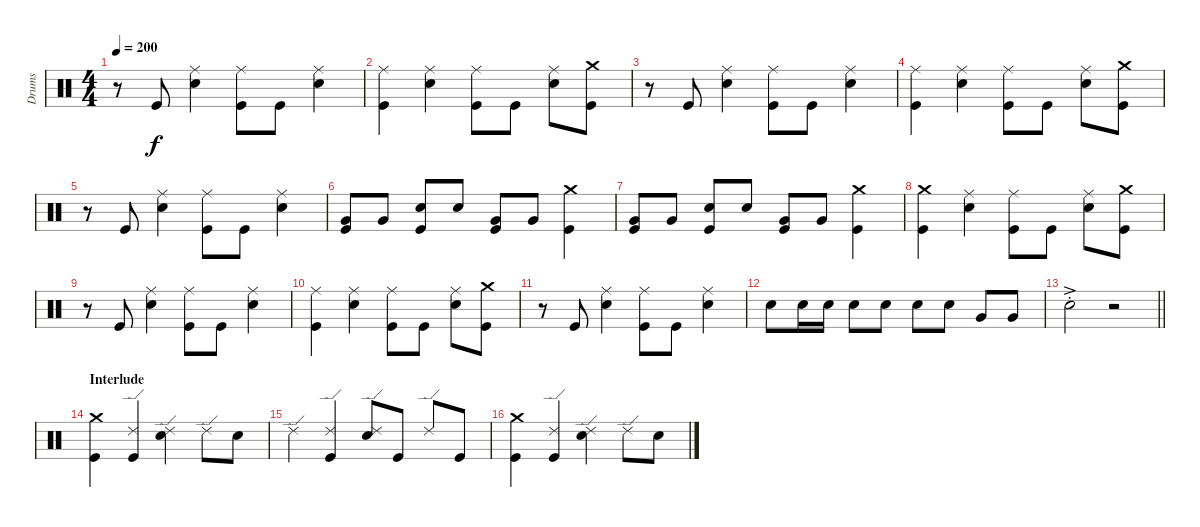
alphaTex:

\track ("Drums" "Drums") {instrument percussion}
\staff {score}
\articulation defaults
\ts (4 4)
\tempo 200
\clef neutral
\ks c
r.8{dy f} "Kick (hit)".8 ("Snare (hit) 2" "Ride (middle)").4 ("Kick (hit)" "Ride (middle)").8 "Kick (hit)".8 ("Snare (hit) 2" "Ride (middle)").4 |
("Kick (hit)" "Ride (middle)").4 ("Snare (hit) 2" "Ride (middle)").4 ("Kick (hit)" "Ride (middle)").8 "Kick (hit)".8 ("Snare (hit) 2" "Ride (middle)").8 ("Kick (hit)" "Crash medium (hit)").8 |
r.8 "Kick (hit)".8 ("Snare (hit) 2" "Ride (middle)").4 ("Kick (hit)" "Ride (middle)").8 "Kick (hit)".8 ("Snare (hit) 2" "Ride (middle)").4 |
("Kick (hit)" "Ride (middle)").4 ("Snare (hit) 2" "Ride (middle)").4 ("Kick (hit)" "Ride (middle)").8 "Kick (hit)".8 ("Snare (hit) 2" "Ride (middle)").8 ("Kick (hit)" "Crash medium (hit)").8 |
r.8 "Kick (hit)".8 ("Snare (hit) 2" "Ride (middle)").4 ("Kick (hit)" "Ride (middle)").8 "Kick (hit)".8 ("Snare (hit) 2" "Ride (middle)").4 |
("Kick (hit)" "Very Low Tom (hit)").8 "Very Low Tom (hit)".8 ("Kick (hit)" "Snare (hit) 2").8 "Snare (hit) 2".8 ("Kick (hit)" "Very Low Tom (hit)").8 "Very Low Tom (hit)".8 ("Kick (hit)" "Crash medium (hit)").4 |
("Kick (hit)" "Very Low Tom (hit)").8 "Very Low Tom (hit)".8 ("Kick (hit)" "Snare (hit) 2").8 "Snare (hit) 2".8 ("Kick (hit)" "Very Low Tom (hit)").8 "Very Low Tom (hit)".8 ("Kick (hit)" "Crash medium (hit)").4 |
("Kick (hit)" "Crash medium (hit)").4 ("Snare (hit) 2" "Ride (middle)").4 ("Kick (hit)" "Ride (middle)").8 "Kick (hit)".8 ("Snare (hit) 2" "Ride (middle)").8 ("Kick (hit)" "Crash medium (hit)").8 |
r.8 "Kick (hit)".8 ("Snare (hit) 2" "Ride (middle)").4 ("Kick (hit)" "Ride (middle)").8 "Kick (hit)".8 ("Snare (hit) 2" "Ride (middle)").4 |
("Kick (hit)" "Ride (middle)").4 ("Snare (hit) 2" "Ride (middle)").4 ("Kick (hit)" "Ride (middle)").8 "Kick (hit)".8 ("Snare (hit) 2" "Ride (middle)").8 ("Kick (hit)" "Crash medium (hit)").8 |
r.8 "Kick (hit)".8 ("Snare (hit) 2" "Ride (middle)").4 ("Kick (hit)" "Ride (middle)").8 "Kick (hit)".8 ("Snare (hit) 2" "Ride (middle)").4 |
"Snare (hit) 2".8 "Snare (hit) 2".16 "Snare (hit) 2".16 "Snare (hit) 2".8 "Snare (hit) 2".8 "Snare (hit) 2".8 "Snare (hit) 2".8 "Very Low Tom (hit)".8 "Very Low Tom (hit)".8 |
\barLineRight lightlight "Snare (hit) 2"{ac st}.2
r.2 |
\section ("" "Interlude")
("Kick (hit)" "Crash medium (hit)").4 ("Kick (hit)" "Ride (edge) 2").4 ("Ride (edge) 2" "Snare (hit) 2").4 "Ride (edge) 2".8 "Snare (hit) 2".8 |
"Ride (edge) 2".4 ("Ride (edge) 2" "Kick (hit)").4 ("Snare (hit) 2" "Ride (edge) 2").8 "Kick (hit)".8 "Ride (edge) 2".8 "Kick (hit)".8 |
("Kick (hit)" "Crash medium (hit)").4 ("Kick (hit)" "Ride (edge) 2").4 ("Ride (edge) 2" "Snare (hit) 2").4 "Ride (edge) 2".8 "Snare (hit) 2".8
